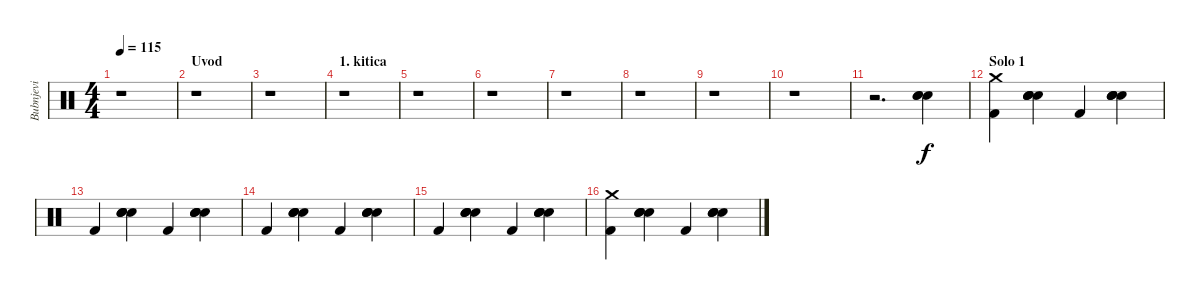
\track ("Bubnjevi" "Bubnjevi") {instrument percussion}
\staff {score}
\articulation defaults
\ts (4 4)
\tempo 115
\clef neutral
\ks c
r.1{dy f} |
\section ("" "Uvod")
r.1 |
r.1 |
\section ("" "1. kitica")
r.1 |
r.1 |
r.1 |
r.1 |
r.1 |
r.1 |
r.1 |
r.2{d} ("Electric Snare (hit)" "Electric Snare (hit)" "Electric Snare (hit)").4 |
\section ("" "Solo 1")
("Crash medium (hit)" "Kick (hit) 2").4 ("Electric Snare (hit)" "Electric Snare (hit)" "Electric Snare (hit)" "Electric Snare (hit)").4 "Kick (hit) 2".4 ("Electric Snare (hit)" "Electric Snare (hit)" "Electric Snare (hit)" "Electric Snare (hit)").4 |
"Kick (hit) 2".4 ("Electric Snare (hit)" "Electric Snare (hit)" "Electric Snare (hit)" "Electric Snare (hit)").4 "Kick (hit) 2".4 ("Electric Snare (hit)" "Electric Snare (hit)" "Electric Snare (hit)" "Electric Snare (hit)").4 |
"Kick (hit) 2".4 ("Electric Snare (hit)" "Electric Snare (hit)" "Electric Snare (hit)" "Electric Snare (hit)").4 "Kick (hit) 2".4 ("Electric Snare (hit)" "Electric Snare (hit)" "Electric Snare (hit)" "Electric Snare (hit)").4 |
"Kick (hit) 2".4 ("Electric Snare (hit)" "Electric Snare (hit)" "Electric Snare (hit)" "Electric Snare (hit)").4 "Kick (hit) 2".4 ("Electric Snare (hit)" "Electric Snare (hit)" "Electric Snare (hit)" "Electric Snare (hit)").4 |
("Crash medium (hit)" "Kick (hit) 2").4 ("Electric Snare (hit)" "Electric Snare (hit)" "Electric Snare (hit)" "Electric Snare (hit)").4 "Kick (hit) 2".4 ("Electric Snare (hit)" "Electric Snare (hit)" "Electric Snare (hit)" "Electric Snare (hit)").4
